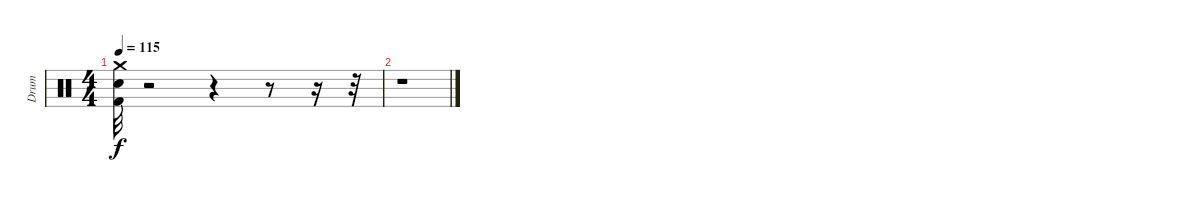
\track ("Drum" "Drum") {instrument percussion}
\staff {score}
\articulation defaults
\ts (4 4)
\tempo 115
\clef neutral
\ks c
("Crash medium (hit)" "Kick (hit) 2" "Snare (hit) 2").32{dy f} r.2 r.4 r.8 r.16 r.32 |
r.1
